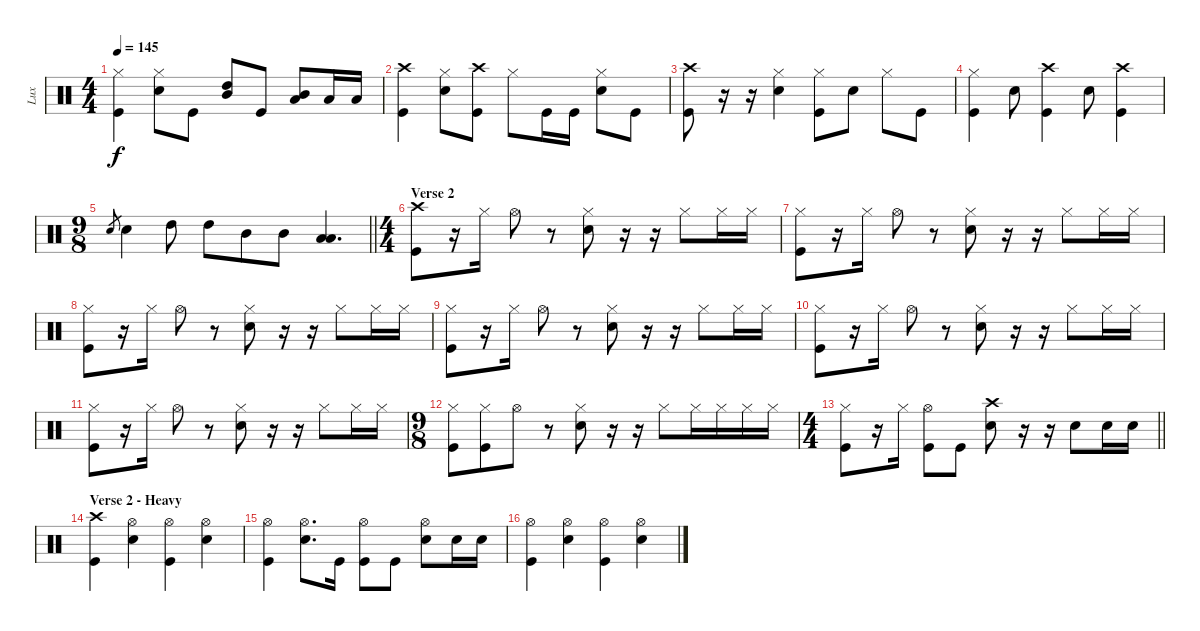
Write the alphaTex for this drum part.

\track ("Lux" "Lux") {mute instrument percussion}
\staff {score}
\articulation defaults
\ts (4 4)
\tempo 145
\clef neutral
\ks c
("Hi-Hat (closed)" "Kick (hit)").4{dy f} ("Hi-Hat (closed)" "Snare (hit) 2").8 "Kick (hit)".8 ("High Tom (hit)" "Mid Tom (hit)").8 "Kick (hit)".8 ("Mid Tom (hit)" "Low Tom (hit)").8 "Low Tom (hit)".16 "Low Tom (hit)".16 |
("Crash high (hit)" "Kick (hit)").4 ("Hi-Hat (closed)" "Snare (hit) 2").8 ("Crash high (hit)" "Kick (hit)").8 "Hi-Hat (closed)".8 "Kick (hit)".16 "Kick (hit)".16 ("Hi-Hat (closed)" "Snare (hit) 2").8 "Kick (hit)".8 |
("Crash high (hit)" "Kick (hit)").8 r.16 r.16 ("Hi-Hat (closed)" "Snare (hit) 2").4 ("Hi-Hat (closed)" "Kick (hit)").8 "Snare (hit) 2".8 "Hi-Hat (closed)".8 "Kick (hit)".8 |
("Hi-Hat (closed)" "Kick (hit)").4 "Snare (hit) 2".8 ("Crash high (hit)" "Kick (hit)").4 "Snare (hit) 2".8 ("Crash high (hit)" "Kick (hit)").4 |
\ts (9 8)
\barLineRight lightlight "Snare (hit) 2".8{gr} "Snare (hit) 2".4 "High Tom (hit)".8 "High Tom (hit)".8 "Mid Tom (hit)".8 "Mid Tom (hit)".8
("Low Tom (hit)" "Low Tom (hit)").4{d} |
\ts (4 4)
\section ("" "Verse 2")
("Crash high (hit)" "Kick (hit)").8 r.16 "Hi-Hat (closed)".16 "Hi-Hat (open)".8 r.8 ("Hi-Hat (closed)" "Snare (hit) 2").8 r.16 r.16 "Hi-Hat (closed)".8 "Hi-Hat (closed)".16 "Hi-Hat (closed)".16 |
("Hi-Hat (closed)" "Kick (hit)").8 r.16 "Hi-Hat (closed)".16 "Hi-Hat (open)".8 r.8 ("Hi-Hat (closed)" "Snare (hit) 2").8 r.16 r.16 "Hi-Hat (closed)".8 "Hi-Hat (closed)".16 "Hi-Hat (closed)".16 |
("Hi-Hat (closed)" "Kick (hit)").8 r.16 "Hi-Hat (closed)".16 "Hi-Hat (open)".8 r.8 ("Hi-Hat (closed)" "Snare (hit) 2").8 r.16 r.16 "Hi-Hat (closed)".8 "Hi-Hat (closed)".16 "Hi-Hat (closed)".16 |
("Hi-Hat (closed)" "Kick (hit)").8 r.16 "Hi-Hat (closed)".16 "Hi-Hat (open)".8 r.8 ("Hi-Hat (closed)" "Snare (hit) 2").8 r.16 r.16 "Hi-Hat (closed)".8 "Hi-Hat (closed)".16 "Hi-Hat (closed)".16 |
("Hi-Hat (closed)" "Kick (hit)").8 r.16 "Hi-Hat (closed)".16 "Hi-Hat (open)".8 r.8 ("Hi-Hat (closed)" "Snare (hit) 2").8 r.16 r.16 "Hi-Hat (closed)".8 "Hi-Hat (closed)".16 "Hi-Hat (closed)".16 |
("Hi-Hat (closed)" "Kick (hit)").8 r.16 "Hi-Hat (closed)".16 "Hi-Hat (open)".8 r.8 ("Hi-Hat (closed)" "Snare (hit) 2").8 r.16 r.16 "Hi-Hat (closed)".8 "Hi-Hat (closed)".16 "Hi-Hat (closed)".16 |
\ts (9 8)
("Hi-Hat (closed)" "Kick (hit)").8 ("Hi-Hat (closed)" "Kick (hit)").8 "Hi-Hat (open)".8 r.8 ("Hi-Hat (closed)" "Snare (hit) 2").8 r.16 r.16 "Hi-Hat (closed)".8 "Hi-Hat (closed)".16 "Hi-Hat (closed)".16 "Hi-Hat (closed)".16 "Hi-Hat (closed)".16 |
\ts (4 4)
\barLineRight lightlight
("Hi-Hat (closed)" "Kick (hit)").8 r.16 "Hi-Hat (closed)".16 ("Hi-Hat (open)" "Kick (hit)").8 "Kick (hit)".8 ("Crash high (hit)" "Snare (hit) 2").8 r.16 r.16 "Snare (hit) 2".8 "Snare (hit) 2".16 "Snare (hit) 2".16 |
\section ("" "Verse 2 - Heavy")
("Crash high (hit)" "Kick (hit)").4 ("Hi-Hat (open)" "Snare (hit) 2").4 ("Hi-Hat (open)" "Kick (hit)").4 ("Hi-Hat (open)" "Snare (hit) 2").4 |
("Hi-Hat (open)" "Kick (hit)").4 ("Hi-Hat (open)" "Snare (hit) 2").8{d} "Kick (hit)".16 ("Hi-Hat (open)" "Kick (hit)").8 "Kick (hit)".8 ("Hi-Hat (open)" "Snare (hit) 2").8 "Snare (hit) 2".16 "Snare (hit) 2".16 |
("Hi-Hat (open)" "Kick (hit)").4 ("Hi-Hat (open)" "Snare (hit) 2").4 ("Hi-Hat (open)" "Kick (hit)").4 ("Hi-Hat (open)" "Snare (hit) 2").4
